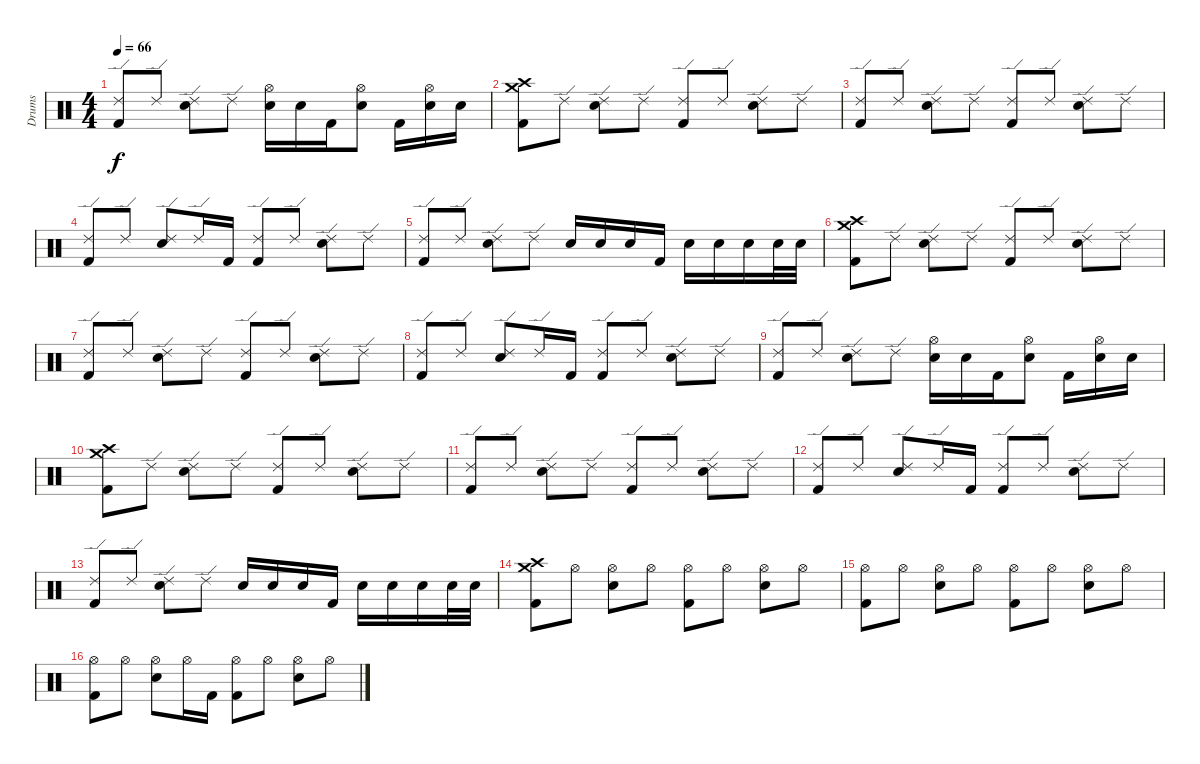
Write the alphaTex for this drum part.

\track ("Drums" "Drums") {instrument percussion}
\staff {score}
\articulation defaults
\ts (4 4)
\tempo 66
\clef neutral
\ks c
("Ride (edge) 2" "Kick (hit) 2").8{dy f} "Ride (edge) 2".8 ("Ride (edge) 2" "Snare (hit) 2").8 "Ride (edge) 2".8 ("Hi-Hat (open)" "Snare (hit) 2").16 "Snare (hit) 2".16 "Kick (hit) 2".16 ("Hi-Hat (open)" "Snare (hit) 2").8 "Kick (hit) 2".16 ("Hi-Hat (open)" "Snare (hit) 2").16 "Snare (hit) 2".16 |
("Crash medium (hit)" "Crash high (hit)" "Kick (hit) 2").8 "Ride (edge) 2".8 ("Ride (edge) 2" "Snare (hit) 2").8 "Ride (edge) 2".8 ("Ride (edge) 2" "Kick (hit) 2").8 "Ride (edge) 2".8 ("Ride (edge) 2" "Snare (hit) 2").8 "Ride (edge) 2".8 |
("Ride (edge) 2" "Kick (hit) 2").8 "Ride (edge) 2".8 ("Ride (edge) 2" "Snare (hit) 2").8 "Ride (edge) 2".8 ("Ride (edge) 2" "Kick (hit) 2").8 "Ride (edge) 2".8 ("Ride (edge) 2" "Snare (hit) 2").8 "Ride (edge) 2".8 |
("Ride (edge) 2" "Kick (hit) 2").8 "Ride (edge) 2".8 ("Ride (edge) 2" "Snare (hit) 2").8 "Ride (edge) 2".16 "Kick (hit) 2".16 ("Ride (edge) 2" "Kick (hit) 2").8 "Ride (edge) 2".8 ("Ride (edge) 2" "Snare (hit) 2").8 "Ride (edge) 2".8 |
("Ride (edge) 2" "Kick (hit) 2").8 "Ride (edge) 2".8 ("Ride (edge) 2" "Snare (hit) 2").8 "Ride (edge) 2".8 "Snare (hit) 2".16 "Snare (hit) 2".16 "Snare (hit) 2".16 "Kick (hit) 2".16 "Snare (hit) 2".16 "Snare (hit) 2".16 "Snare (hit) 2".16 "Snare (hit) 2".32 "Snare (hit) 2".32 |
("Crash medium (hit)" "Crash high (hit)" "Kick (hit) 2").8 "Ride (edge) 2".8 ("Ride (edge) 2" "Snare (hit) 2").8 "Ride (edge) 2".8 ("Ride (edge) 2" "Kick (hit) 2").8 "Ride (edge) 2".8 ("Ride (edge) 2" "Snare (hit) 2").8 "Ride (edge) 2".8 |
("Ride (edge) 2" "Kick (hit) 2").8 "Ride (edge) 2".8 ("Ride (edge) 2" "Snare (hit) 2").8 "Ride (edge) 2".8 ("Ride (edge) 2" "Kick (hit) 2").8 "Ride (edge) 2".8 ("Ride (edge) 2" "Snare (hit) 2").8 "Ride (edge) 2".8 |
("Ride (edge) 2" "Kick (hit) 2").8 "Ride (edge) 2".8 ("Ride (edge) 2" "Snare (hit) 2").8 "Ride (edge) 2".16 "Kick (hit) 2".16 ("Ride (edge) 2" "Kick (hit) 2").8 "Ride (edge) 2".8 ("Ride (edge) 2" "Snare (hit) 2").8 "Ride (edge) 2".8 |
("Ride (edge) 2" "Kick (hit) 2").8 "Ride (edge) 2".8 ("Ride (edge) 2" "Snare (hit) 2").8 "Ride (edge) 2".8 ("Hi-Hat (open)" "Snare (hit) 2").16 "Snare (hit) 2".16 "Kick (hit) 2".16 ("Hi-Hat (open)" "Snare (hit) 2").8 "Kick (hit) 2".16 ("Hi-Hat (open)" "Snare (hit) 2").16 "Snare (hit) 2".16 |
("Crash medium (hit)" "Crash high (hit)" "Kick (hit) 2").8 "Ride (edge) 2".8 ("Ride (edge) 2" "Snare (hit) 2").8 "Ride (edge) 2".8 ("Ride (edge) 2" "Kick (hit) 2").8 "Ride (edge) 2".8 ("Ride (edge) 2" "Snare (hit) 2").8 "Ride (edge) 2".8 |
("Ride (edge) 2" "Kick (hit) 2").8 "Ride (edge) 2".8 ("Ride (edge) 2" "Snare (hit) 2").8 "Ride (edge) 2".8 ("Ride (edge) 2" "Kick (hit) 2").8 "Ride (edge) 2".8 ("Ride (edge) 2" "Snare (hit) 2").8 "Ride (edge) 2".8 |
("Ride (edge) 2" "Kick (hit) 2").8 "Ride (edge) 2".8 ("Ride (edge) 2" "Snare (hit) 2").8 "Ride (edge) 2".16 "Kick (hit) 2".16 ("Ride (edge) 2" "Kick (hit) 2").8 "Ride (edge) 2".8 ("Ride (edge) 2" "Snare (hit) 2").8 "Ride (edge) 2".8 |
("Ride (edge) 2" "Kick (hit) 2").8 "Ride (edge) 2".8 ("Ride (edge) 2" "Snare (hit) 2").8 "Ride (edge) 2".8 "Snare (hit) 2".16 "Snare (hit) 2".16 "Snare (hit) 2".16 "Kick (hit) 2".16 "Snare (hit) 2".16 "Snare (hit) 2".16 "Snare (hit) 2".16 "Snare (hit) 2".32 "Snare (hit) 2".32 |
("Crash medium (hit)" "Crash high (hit)" "Kick (hit) 2").8 "Hi-Hat (open)".8 ("Hi-Hat (open)" "Snare (hit) 2").8 "Hi-Hat (open)".8 ("Hi-Hat (open)" "Kick (hit) 2").8 "Hi-Hat (open)".8 ("Hi-Hat (open)" "Snare (hit) 2").8 "Hi-Hat (open)".8 |
("Hi-Hat (open)" "Kick (hit) 2").8 "Hi-Hat (open)".8 ("Hi-Hat (open)" "Snare (hit) 2").8 "Hi-Hat (open)".8 ("Hi-Hat (open)" "Kick (hit) 2").8 "Hi-Hat (open)".8 ("Hi-Hat (open)" "Snare (hit) 2").8 "Hi-Hat (open)".8 |
("Hi-Hat (open)" "Kick (hit) 2").8 "Hi-Hat (open)".8 ("Hi-Hat (open)" "Snare (hit) 2").8 "Hi-Hat (open)".16 "Kick (hit) 2".16 ("Hi-Hat (open)" "Kick (hit) 2").8 "Hi-Hat (open)".8 ("Hi-Hat (open)" "Snare (hit) 2").8 "Hi-Hat (open)".8
